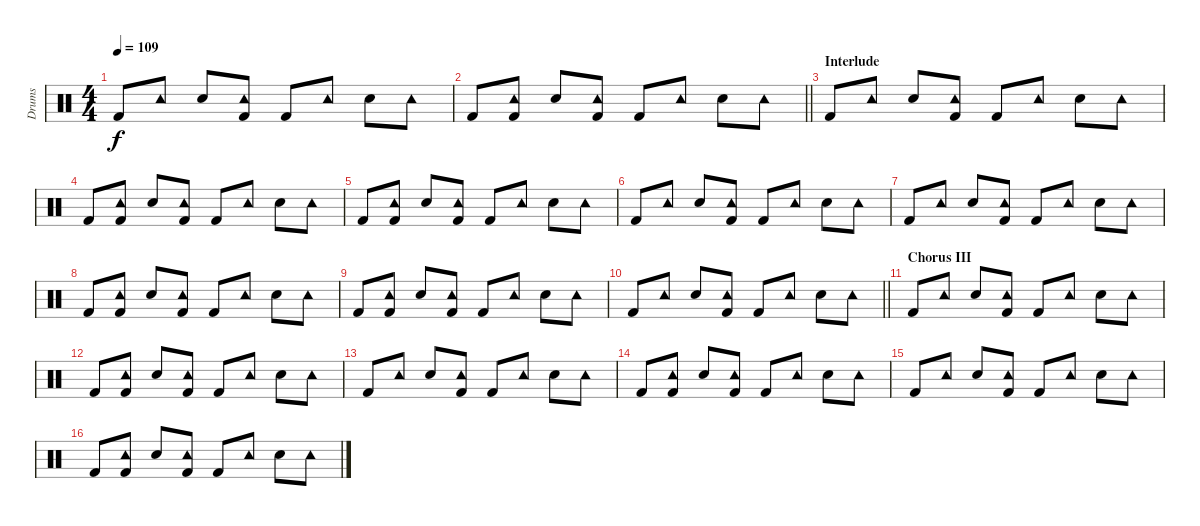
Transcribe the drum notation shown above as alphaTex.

\track ("Drums" "Drums") {instrument percussion}
\staff {score}
\articulation defaults
\ts (4 4)
\tempo 109
\clef neutral
\ks c "Kick (hit) 2".8{dy f} "Tambourine (hit)".8 "Snare (hit) 2".8
("Tambourine (hit)" "Kick (hit) 2").8 "Kick (hit) 2".8 "Tambourine (hit)".8 "Snare (hit) 2".8 "Tambourine (hit)".8 |
\barLineRight lightlight "Kick (hit) 2".8
("Tambourine (hit)" "Kick (hit) 2").8 "Snare (hit) 2".8 ("Tambourine (hit)" "Kick (hit) 2").8 "Kick (hit) 2".8 "Tambourine (hit)".8 "Snare (hit) 2".8 "Tambourine (hit)".8 |
\section ("" "Interlude")
"Kick (hit) 2".8 "Tambourine (hit)".8 "Snare (hit) 2".8 ("Tambourine (hit)" "Kick (hit) 2").8 "Kick (hit) 2".8 "Tambourine (hit)".8 "Snare (hit) 2".8 "Tambourine (hit)".8 |
"Kick (hit) 2".8 ("Tambourine (hit)" "Kick (hit) 2").8 "Snare (hit) 2".8 ("Tambourine (hit)" "Kick (hit) 2").8 "Kick (hit) 2".8 "Tambourine (hit)".8 "Snare (hit) 2".8 "Tambourine (hit)".8 |
"Kick (hit) 2".8 ("Tambourine (hit)" "Kick (hit) 2").8 "Snare (hit) 2".8 ("Tambourine (hit)" "Kick (hit) 2").8 "Kick (hit) 2".8 "Tambourine (hit)".8 "Snare (hit) 2".8 "Tambourine (hit)".8 |
"Kick (hit) 2".8 "Tambourine (hit)".8 "Snare (hit) 2".8 ("Tambourine (hit)" "Kick (hit) 2").8 "Kick (hit) 2".8 "Tambourine (hit)".8 "Snare (hit) 2".8 "Tambourine (hit)".8 |
"Kick (hit) 2".8 "Tambourine (hit)".8 "Snare (hit) 2".8 ("Tambourine (hit)" "Kick (hit) 2").8 "Kick (hit) 2".8 "Tambourine (hit)".8 "Snare (hit) 2".8 "Tambourine (hit)".8 |
"Kick (hit) 2".8 ("Tambourine (hit)" "Kick (hit) 2").8 "Snare (hit) 2".8 ("Tambourine (hit)" "Kick (hit) 2").8 "Kick (hit) 2".8 "Tambourine (hit)".8 "Snare (hit) 2".8 "Tambourine (hit)".8 |
"Kick (hit) 2".8 ("Tambourine (hit)" "Kick (hit) 2").8 "Snare (hit) 2".8 ("Tambourine (hit)" "Kick (hit) 2").8 "Kick (hit) 2".8 "Tambourine (hit)".8 "Snare (hit) 2".8 "Tambourine (hit)".8 |
\barLineRight lightlight "Kick (hit) 2".8 "Tambourine (hit)".8 "Snare (hit) 2".8
("Tambourine (hit)" "Kick (hit) 2").8 "Kick (hit) 2".8 "Tambourine (hit)".8 "Snare (hit) 2".8 "Tambourine (hit)".8 |
\section ("" "Chorus III")
"Kick (hit) 2".8 "Tambourine (hit)".8 "Snare (hit) 2".8 ("Tambourine (hit)" "Kick (hit) 2").8 "Kick (hit) 2".8 "Tambourine (hit)".8 "Snare (hit) 2".8 "Tambourine (hit)".8 |
"Kick (hit) 2".8 ("Tambourine (hit)" "Kick (hit) 2").8 "Snare (hit) 2".8 ("Tambourine (hit)" "Kick (hit) 2").8 "Kick (hit) 2".8 "Tambourine (hit)".8 "Snare (hit) 2".8 "Tambourine (hit)".8 |
"Kick (hit) 2".8 "Tambourine (hit)".8 "Snare (hit) 2".8 ("Tambourine (hit)" "Kick (hit) 2").8 "Kick (hit) 2".8 "Tambourine (hit)".8 "Snare (hit) 2".8 "Tambourine (hit)".8 |
"Kick (hit) 2".8 ("Tambourine (hit)" "Kick (hit) 2").8 "Snare (hit) 2".8 ("Tambourine (hit)" "Kick (hit) 2").8 "Kick (hit) 2".8 "Tambourine (hit)".8 "Snare (hit) 2".8 "Tambourine (hit)".8 |
"Kick (hit) 2".8 "Tambourine (hit)".8 "Snare (hit) 2".8 ("Tambourine (hit)" "Kick (hit) 2").8 "Kick (hit) 2".8 "Tambourine (hit)".8 "Snare (hit) 2".8 "Tambourine (hit)".8 |
"Kick (hit) 2".8 ("Tambourine (hit)" "Kick (hit) 2").8 "Snare (hit) 2".8 ("Tambourine (hit)" "Kick (hit) 2").8 "Kick (hit) 2".8 "Tambourine (hit)".8 "Snare (hit) 2".8 "Tambourine (hit)".8
